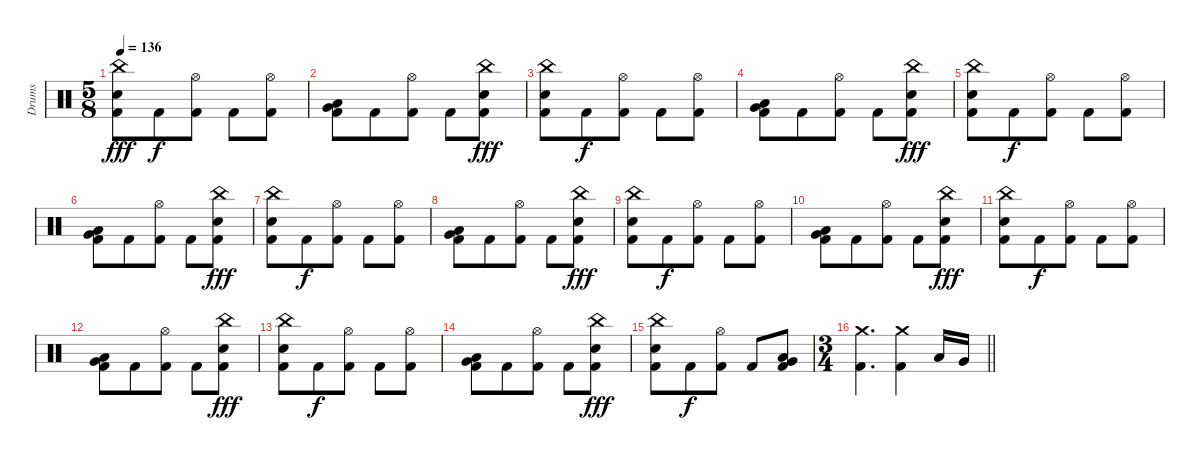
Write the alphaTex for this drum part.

\track ("Drums" "Drums") {instrument percussion}
\staff {score}
\articulation defaults
\ts (5 8)
\tempo 136
\clef neutral
\ks c
("China (hit)" "Electric Snare (hit)" "Kick (hit) 2").8{dy fff} "Kick (hit) 2".8{dy f} ("Hi-Hat (open)" "Kick (hit) 2").8 "Kick (hit) 2".8 ("Hi-Hat (open)" "Kick (hit) 2").8 |
("Low Tom (hit)" "Very Low Tom (hit)" "Kick (hit) 2").8 "Kick (hit) 2".8 ("Hi-Hat (open)" "Kick (hit) 2").8 "Kick (hit) 2".8 ("China (hit)" "Electric Snare (hit)" "Kick (hit) 2").8{dy fff} |
("China (hit)" "Electric Snare (hit)" "Kick (hit) 2").8 "Kick (hit) 2".8{dy f} ("Hi-Hat (open)" "Kick (hit) 2").8 "Kick (hit) 2".8 ("Hi-Hat (open)" "Kick (hit) 2").8 |
("Low Tom (hit)" "Very Low Tom (hit)" "Kick (hit) 2").8 "Kick (hit) 2".8 ("Hi-Hat (open)" "Kick (hit) 2").8 "Kick (hit) 2".8 ("China (hit)" "Electric Snare (hit)" "Kick (hit) 2").8{dy fff} |
("China (hit)" "Electric Snare (hit)" "Kick (hit) 2").8 "Kick (hit) 2".8{dy f} ("Hi-Hat (open)" "Kick (hit) 2").8 "Kick (hit) 2".8 ("Hi-Hat (open)" "Kick (hit) 2").8 |
("Low Tom (hit)" "Very Low Tom (hit)" "Kick (hit) 2").8 "Kick (hit) 2".8 ("Hi-Hat (open)" "Kick (hit) 2").8 "Kick (hit) 2".8 ("China (hit)" "Electric Snare (hit)" "Kick (hit) 2").8{dy fff} |
("China (hit)" "Electric Snare (hit)" "Kick (hit) 2").8 "Kick (hit) 2".8{dy f} ("Hi-Hat (open)" "Kick (hit) 2").8 "Kick (hit) 2".8 ("Hi-Hat (open)" "Kick (hit) 2").8 |
("Low Tom (hit)" "Very Low Tom (hit)" "Kick (hit) 2").8 "Kick (hit) 2".8 ("Hi-Hat (open)" "Kick (hit) 2").8 "Kick (hit) 2".8 ("China (hit)" "Electric Snare (hit)" "Kick (hit) 2").8{dy fff} |
("China (hit)" "Electric Snare (hit)" "Kick (hit) 2").8 "Kick (hit) 2".8{dy f} ("Hi-Hat (open)" "Kick (hit) 2").8 "Kick (hit) 2".8 ("Hi-Hat (open)" "Kick (hit) 2").8 |
("Low Tom (hit)" "Very Low Tom (hit)" "Kick (hit) 2").8 "Kick (hit) 2".8 ("Hi-Hat (open)" "Kick (hit) 2").8 "Kick (hit) 2".8 ("China (hit)" "Electric Snare (hit)" "Kick (hit) 2").8{dy fff} |
("China (hit)" "Electric Snare (hit)" "Kick (hit) 2").8 "Kick (hit) 2".8{dy f} ("Hi-Hat (open)" "Kick (hit) 2").8 "Kick (hit) 2".8 ("Hi-Hat (open)" "Kick (hit) 2").8 |
("Low Tom (hit)" "Very Low Tom (hit)" "Kick (hit) 2").8 "Kick (hit) 2".8 ("Hi-Hat (open)" "Kick (hit) 2").8 "Kick (hit) 2".8 ("China (hit)" "Electric Snare (hit)" "Kick (hit) 2").8{dy fff} |
("China (hit)" "Electric Snare (hit)" "Kick (hit) 2").8 "Kick (hit) 2".8{dy f} ("Hi-Hat (open)" "Kick (hit) 2").8 "Kick (hit) 2".8 ("Hi-Hat (open)" "Kick (hit) 2").8 |
("Low Tom (hit)" "Very Low Tom (hit)" "Kick (hit) 2").8 "Kick (hit) 2".8 ("Hi-Hat (open)" "Kick (hit) 2").8 "Kick (hit) 2".8 ("China (hit)" "Electric Snare (hit)" "Kick (hit) 2").8{dy fff} |
("China (hit)" "Electric Snare (hit)" "Kick (hit) 2").8 "Kick (hit) 2".8{dy f} ("Hi-Hat (open)" "Kick (hit) 2").8 "Kick (hit) 2".8 ("Low Tom (hit)" "Very Low Tom (hit)" "Kick (hit) 2").8 |
\ts (3 4)
\barLineRight lightlight
("Crash medium (hit)" "Kick (hit) 2").4{d} ("Crash medium (hit)" "Kick (hit) 2").4 "Low Tom (hit)".16 "Very Low Tom (hit)".16
